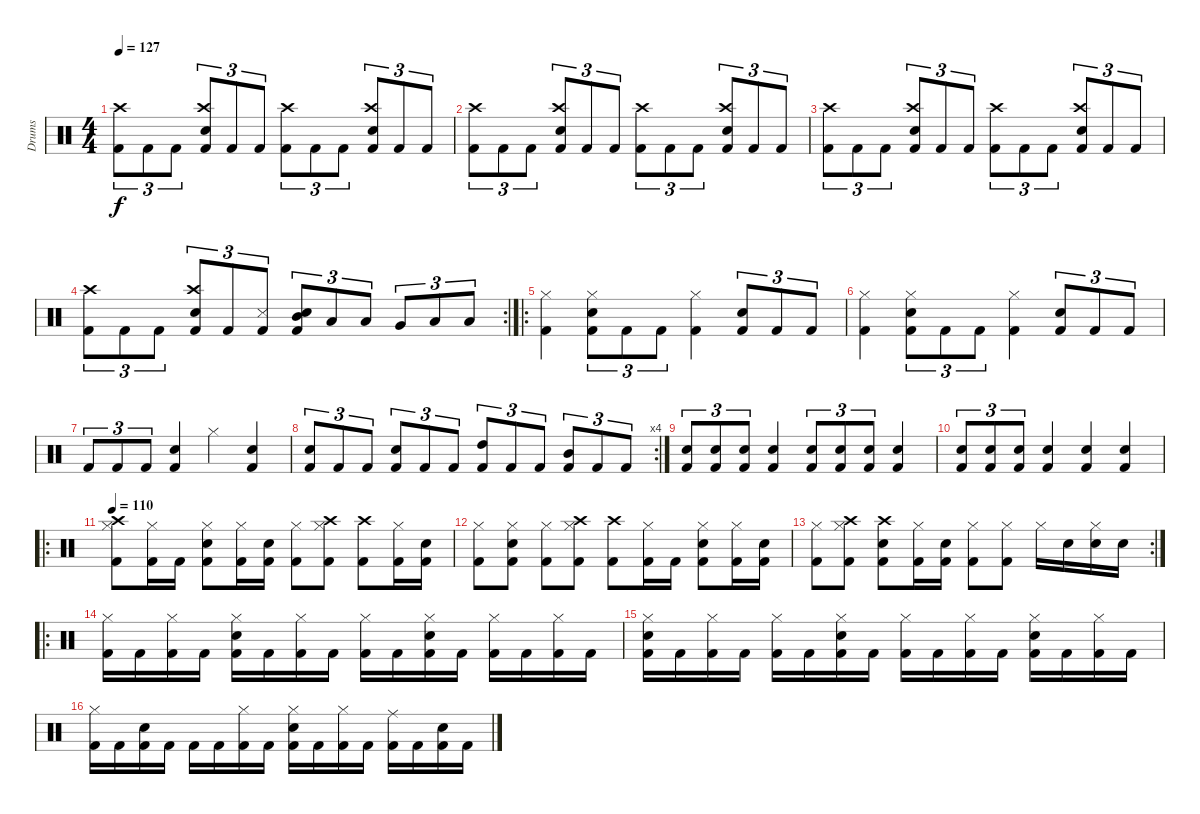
\track ("Drums" "Drums") {instrument percussion}
\staff {score}
\articulation defaults
\ts (4 4)
\tempo 127
\clef neutral
\ks c
("Kick (hit) 2" "Crash high (hit)").8{tu (3 2) dy f} "Kick (hit) 2".8{tu (3 2)} "Kick (hit) 2".8{tu (3 2)} ("Kick (hit) 2" "Electric Snare (hit)" "Crash high (hit)").8{tu (3 2)} "Kick (hit) 2".8{tu (3 2)} "Kick (hit) 2".8{tu (3 2)} ("Kick (hit) 2" "Crash high (hit)").8{tu (3 2)} "Kick (hit) 2".8{tu (3 2)} "Kick (hit) 2".8{tu (3 2)} ("Kick (hit) 2" "Electric Snare (hit)" "Crash high (hit)").8{tu (3 2)} "Kick (hit) 2".8{tu (3 2)} "Kick (hit) 2".8{tu (3 2)} |
("Kick (hit) 2" "Crash high (hit)").8{tu (3 2)} "Kick (hit) 2".8{tu (3 2)} "Kick (hit) 2".8{tu (3 2)} ("Kick (hit) 2" "Electric Snare (hit)" "Crash high (hit)").8{tu (3 2)} "Kick (hit) 2".8{tu (3 2)} "Kick (hit) 2".8{tu (3 2)} ("Kick (hit) 2" "Crash high (hit)").8{tu (3 2)} "Kick (hit) 2".8{tu (3 2)} "Kick (hit) 2".8{tu (3 2)} ("Kick (hit) 2" "Electric Snare (hit)" "Crash high (hit)").8{tu (3 2)} "Kick (hit) 2".8{tu (3 2)} "Kick (hit) 2".8{tu (3 2)} |
("Kick (hit) 2" "Crash high (hit)").8{tu (3 2)} "Kick (hit) 2".8{tu (3 2)} "Kick (hit) 2".8{tu (3 2)} ("Kick (hit) 2" "Electric Snare (hit)" "Crash high (hit)").8{tu (3 2)} "Kick (hit) 2".8{tu (3 2)} "Kick (hit) 2".8{tu (3 2)} ("Kick (hit) 2" "Crash high (hit)").8{tu (3 2)} "Kick (hit) 2".8{tu (3 2)} "Kick (hit) 2".8{tu (3 2)} ("Kick (hit) 2" "Electric Snare (hit)" "Crash high (hit)").8{tu (3 2)} "Kick (hit) 2".8{tu (3 2)} "Kick (hit) 2".8{tu (3 2)} |
\rc 2
("Kick (hit) 2" "Crash high (hit)").8{tu (3 2)} "Kick (hit) 2".8{tu (3 2)} "Kick (hit) 2".8{tu (3 2)} ("Kick (hit) 2" "Electric Snare (hit)" "Crash high (hit)").8{tu (3 2)} "Kick (hit) 2".8{tu (3 2)} ("Kick (hit) 2" "Snare (side stick) 3").8{tu (3 2)} ("Kick (hit) 2" "Electric Snare (hit)" "Mid Tom (hit)").8{tu (3 2)} "Low Tom (hit)".8{tu (3 2)} "Low Tom (hit)".8{tu (3 2)} "Very Low Tom (hit)".8{tu (3 2)} "Low Floor Tom (hit)".8{tu (3 2)} "Low Floor Tom (hit)".8{tu (3 2)} |
\ro
("Kick (hit) 2" "Hi-Hat (closed)").4 ("Kick (hit) 2" "Electric Snare (hit)" "Hi-Hat (closed)").8{tu (3 2)} "Kick (hit) 2".8{tu (3 2)} "Kick (hit) 2".8{tu (3 2)} ("Kick (hit) 2" "Hi-Hat (closed)").4 ("Kick (hit) 2" "Electric Snare (hit)").8{tu (3 2)} "Kick (hit) 2".8{tu (3 2)} "Kick (hit) 2".8{tu (3 2)} |
("Kick (hit) 2" "Hi-Hat (closed)").4 ("Kick (hit) 2" "Electric Snare (hit)" "Hi-Hat (closed)").8{tu (3 2)} "Kick (hit) 2".8{tu (3 2)} "Kick (hit) 2".8{tu (3 2)} ("Kick (hit) 2" "Hi-Hat (closed)").4 ("Kick (hit) 2" "Electric Snare (hit)").8{tu (3 2)} "Kick (hit) 2".8{tu (3 2)} "Kick (hit) 2".8{tu (3 2)} |
"Kick (hit) 2".8{tu (3 2)} "Kick (hit) 2".8{tu (3 2)} "Kick (hit) 2".8{tu (3 2)} ("Kick (hit) 2" "Electric Snare (hit)").4 "Hi-Hat (closed)".4 ("Kick (hit) 2" "Electric Snare (hit)").4 |
\rc 4
("Kick (hit) 2" "Electric Snare (hit)").8{tu (3 2)} "Kick (hit) 2".8{tu (3 2)} "Kick (hit) 2".8{tu (3 2)} ("Kick (hit) 2" "Electric Snare (hit)").8{tu (3 2)} "Kick (hit) 2".8{tu (3 2)} "Kick (hit) 2".8{tu (3 2)} ("Kick (hit) 2" "High Tom (hit)").8{tu (3 2)} "Kick (hit) 2".8{tu (3 2)} "Kick (hit) 2".8{tu (3 2)} ("Kick (hit) 2" "Mid Tom (hit)").8{tu (3 2)} "Kick (hit) 2".8{tu (3 2)} "Kick (hit) 2".8{tu (3 2)} |
("Kick (hit) 2" "Electric Snare (hit)").8{tu (3 2)} ("Kick (hit) 2" "Electric Snare (hit)").8{tu (3 2)} ("Kick (hit) 2" "Electric Snare (hit)").8{tu (3 2)} ("Kick (hit) 2" "Electric Snare (hit)").4 ("Kick (hit) 2" "Electric Snare (hit)").8{tu (3 2)} ("Kick (hit) 2" "Electric Snare (hit)").8{tu (3 2)} ("Kick (hit) 2" "Electric Snare (hit)").8{tu (3 2)} ("Kick (hit) 2" "Electric Snare (hit)").4 |
("Kick (hit) 2" "Electric Snare (hit)").8{tu (3 2)} ("Kick (hit) 2" "Electric Snare (hit)").8{tu (3 2)} ("Kick (hit) 2" "Electric Snare (hit)").8{tu (3 2)} ("Kick (hit) 2" "Electric Snare (hit)").4 ("Kick (hit) 2" "Electric Snare (hit)").4 ("Kick (hit) 2" "Electric Snare (hit)").4 |
\ro
\tempo 110
("Kick (hit) 2" "Crash high (hit)" "Hi-Hat (closed)").8 ("Kick (hit) 2" "Hi-Hat (closed)").16 "Kick (hit) 2".16 ("Kick (hit) 2" "Electric Snare (hit)" "Hi-Hat (closed)").8 ("Kick (hit) 2" "Hi-Hat (closed)").16 ("Kick (hit) 2" "Electric Snare (hit)").16 ("Kick (hit) 2" "Hi-Hat (closed)").8 ("Kick (hit) 2" "Hi-Hat (closed)" "Crash high (hit)").8 ("Kick (hit) 2" "Crash high (hit)").8 ("Kick (hit) 2" "Hi-Hat (closed)").16 ("Kick (hit) 2" "Electric Snare (hit)").16 |
("Kick (hit) 2" "Hi-Hat (closed)").8 ("Kick (hit) 2" "Electric Snare (hit)" "Hi-Hat (closed)").8 ("Kick (hit) 2" "Hi-Hat (closed)").8 ("Kick (hit) 2" "Hi-Hat (closed)" "Crash high (hit)").8 ("Kick (hit) 2" "Crash high (hit)").8 ("Kick (hit) 2" "Hi-Hat (closed)").16 "Kick (hit) 2".16 ("Kick (hit) 2" "Electric Snare (hit)" "Hi-Hat (closed)").8 ("Kick (hit) 2" "Hi-Hat (closed)").16 ("Kick (hit) 2" "Electric Snare (hit)").16 |
\rc 2
("Kick (hit) 2" "Hi-Hat (closed)").8 ("Kick (hit) 2" "Hi-Hat (closed)" "Crash high (hit)").8 ("Kick (hit) 2" "Electric Snare (hit)" "Crash high (hit)").8 ("Kick (hit) 2" "Hi-Hat (closed)").16 ("Kick (hit) 2" "Electric Snare (hit)").16 ("Kick (hit) 2" "Hi-Hat (closed)").8 ("Kick (hit) 2" "Hi-Hat (closed)").8 "Hi-Hat (closed)".16 "Electric Snare (hit)".16 ("Electric Snare (hit)" "Hi-Hat (closed)").16 "Electric Snare (hit)".16 |
\ro
("Kick (hit) 2" "Hi-Hat (closed)").16 "Kick (hit) 2".16 ("Kick (hit) 2" "Hi-Hat (closed)").16 "Kick (hit) 2".16 ("Kick (hit) 2" "Hi-Hat (closed)" "Electric Snare (hit)").16 "Kick (hit) 2".16 ("Kick (hit) 2" "Hi-Hat (closed)").16 "Kick (hit) 2".16 ("Kick (hit) 2" "Hi-Hat (closed)").16 "Kick (hit) 2".16 ("Kick (hit) 2" "Hi-Hat (closed)" "Electric Snare (hit)").16 "Kick (hit) 2".16 ("Kick (hit) 2" "Hi-Hat (closed)").16 "Kick (hit) 2".16 ("Kick (hit) 2" "Hi-Hat (closed)").16 "Kick (hit) 2".16 |
("Kick (hit) 2" "Hi-Hat (closed)" "Electric Snare (hit)").16 "Kick (hit) 2".16 ("Kick (hit) 2" "Hi-Hat (closed)").16 "Kick (hit) 2".16 ("Kick (hit) 2" "Hi-Hat (closed)").16 "Kick (hit) 2".16 ("Kick (hit) 2" "Hi-Hat (closed)" "Electric Snare (hit)").16 "Kick (hit) 2".16 ("Kick (hit) 2" "Hi-Hat (closed)").16 "Kick (hit) 2".16 ("Kick (hit) 2" "Hi-Hat (closed)").16 "Kick (hit) 2".16 ("Kick (hit) 2" "Hi-Hat (closed)" "Electric Snare (hit)").16 "Kick (hit) 2".16 ("Kick (hit) 2" "Hi-Hat (closed)").16 "Kick (hit) 2".16 |
("Kick (hit) 2" "Hi-Hat (closed)").16 "Kick (hit) 2".16 ("Kick (hit) 2" "Electric Snare (hit)").16 "Kick (hit) 2".16 "Kick (hit) 2".16 "Kick (hit) 2".16 ("Kick (hit) 2" "Hi-Hat (closed)").16 "Kick (hit) 2".16 ("Kick (hit) 2" "Hi-Hat (closed)" "Electric Snare (hit)").16 "Kick (hit) 2".16 ("Kick (hit) 2" "Hi-Hat (closed)").16 "Kick (hit) 2".16 ("Kick (hit) 2" "Ride (middle)").16 "Kick (hit) 2".16 ("Kick (hit) 2" "Electric Snare (hit)").16 "Kick (hit) 2".16
